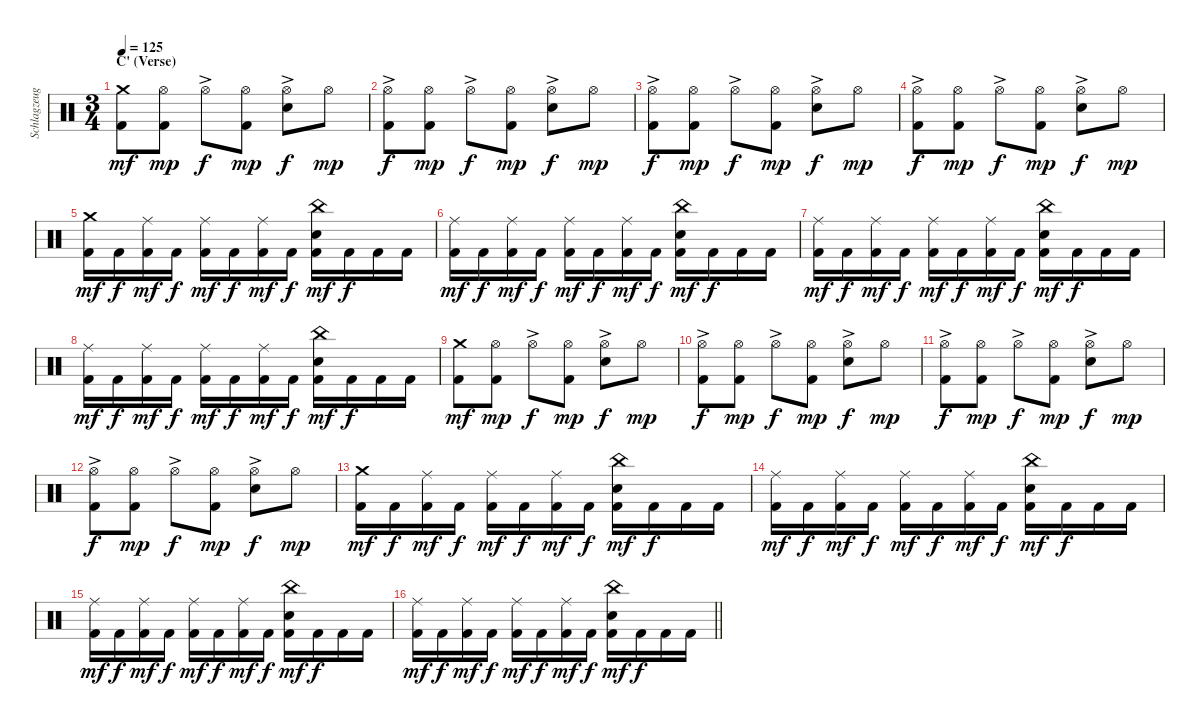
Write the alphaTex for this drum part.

\track ("Schlagzeug" "Schlagzeug") {instrument percussion}
\staff {score}
\articulation defaults
\ts (3 4)
\section ("" "C' (Verse)")
\tempo 125
\clef neutral
\ks c
("Crash medium (hit)" "Kick (hit) 2").8{dy mf} ("Hi-Hat (open)" "Kick (hit) 2").8{dy mp} "Hi-Hat (open)"{ac}.8{dy f} ("Hi-Hat (open)" "Kick (hit) 2").8{dy mp} ("Hi-Hat (open)"{ac} "Electric Snare (hit)").8{dy f} "Hi-Hat (open)".8{dy mp} |
("Hi-Hat (open)"{ac} "Kick (hit) 2").8{dy f} ("Hi-Hat (open)" "Kick (hit) 2").8{dy mp} "Hi-Hat (open)"{ac}.8{dy f} ("Hi-Hat (open)" "Kick (hit) 2").8{dy mp} ("Hi-Hat (open)"{ac} "Electric Snare (hit)").8{dy f} "Hi-Hat (open)".8{dy mp} |
("Hi-Hat (open)"{ac} "Kick (hit) 2").8{dy f} ("Hi-Hat (open)" "Kick (hit) 2").8{dy mp} "Hi-Hat (open)"{ac}.8{dy f} ("Hi-Hat (open)" "Kick (hit) 2").8{dy mp} ("Hi-Hat (open)"{ac} "Electric Snare (hit)").8{dy f} "Hi-Hat (open)".8{dy mp} |
("Hi-Hat (open)"{ac} "Kick (hit) 2").8{dy f} ("Hi-Hat (open)" "Kick (hit) 2").8{dy mp} "Hi-Hat (open)"{ac}.8{dy f} ("Hi-Hat (open)" "Kick (hit) 2").8{dy mp} ("Hi-Hat (open)"{ac} "Electric Snare (hit)").8{dy f} "Hi-Hat (open)".8{dy mp} |
("Crash medium (hit)" "Kick (hit) 2").16{dy mf} "Kick (hit) 2".16{dy f} ("Ride (middle)" "Kick (hit) 2").16{dy mf} "Kick (hit) 2".16{dy f} ("Ride (middle)" "Kick (hit) 2").16{dy mf} "Kick (hit) 2".16{dy f} ("Ride (middle)" "Kick (hit) 2").16{dy mf} "Kick (hit) 2".16{dy f} ("China (hit)" "Electric Snare (hit)" "Kick (hit) 2").16{dy mf} "Kick (hit) 2".16{dy f} "Kick (hit) 2".16 "Kick (hit) 2".16 |
("Ride (middle)" "Kick (hit) 2").16{dy mf} "Kick (hit) 2".16{dy f} ("Ride (middle)" "Kick (hit) 2").16{dy mf} "Kick (hit) 2".16{dy f} ("Ride (middle)" "Kick (hit) 2").16{dy mf} "Kick (hit) 2".16{dy f} ("Ride (middle)" "Kick (hit) 2").16{dy mf} "Kick (hit) 2".16{dy f} ("China (hit)" "Electric Snare (hit)" "Kick (hit) 2").16{dy mf} "Kick (hit) 2".16{dy f} "Kick (hit) 2".16 "Kick (hit) 2".16 |
("Ride (middle)" "Kick (hit) 2").16{dy mf} "Kick (hit) 2".16{dy f} ("Ride (middle)" "Kick (hit) 2").16{dy mf} "Kick (hit) 2".16{dy f} ("Ride (middle)" "Kick (hit) 2").16{dy mf} "Kick (hit) 2".16{dy f} ("Ride (middle)" "Kick (hit) 2").16{dy mf} "Kick (hit) 2".16{dy f} ("China (hit)" "Electric Snare (hit)" "Kick (hit) 2").16{dy mf} "Kick (hit) 2".16{dy f} "Kick (hit) 2".16 "Kick (hit) 2".16 |
("Ride (middle)" "Kick (hit) 2").16{dy mf} "Kick (hit) 2".16{dy f} ("Ride (middle)" "Kick (hit) 2").16{dy mf} "Kick (hit) 2".16{dy f} ("Ride (middle)" "Kick (hit) 2").16{dy mf} "Kick (hit) 2".16{dy f} ("Ride (middle)" "Kick (hit) 2").16{dy mf} "Kick (hit) 2".16{dy f} ("China (hit)" "Electric Snare (hit)" "Kick (hit) 2").16{dy mf} "Kick (hit) 2".16{dy f} "Kick (hit) 2".16 "Kick (hit) 2".16 |
("Crash medium (hit)" "Kick (hit) 2").8{dy mf} ("Hi-Hat (open)" "Kick (hit) 2").8{dy mp} "Hi-Hat (open)"{ac}.8{dy f} ("Hi-Hat (open)" "Kick (hit) 2").8{dy mp} ("Hi-Hat (open)"{ac} "Electric Snare (hit)").8{dy f} "Hi-Hat (open)".8{dy mp} |
("Hi-Hat (open)"{ac} "Kick (hit) 2").8{dy f} ("Hi-Hat (open)" "Kick (hit) 2").8{dy mp} "Hi-Hat (open)"{ac}.8{dy f} ("Hi-Hat (open)" "Kick (hit) 2").8{dy mp} ("Hi-Hat (open)"{ac} "Electric Snare (hit)").8{dy f} "Hi-Hat (open)".8{dy mp} |
("Hi-Hat (open)"{ac} "Kick (hit) 2").8{dy f} ("Hi-Hat (open)" "Kick (hit) 2").8{dy mp} "Hi-Hat (open)"{ac}.8{dy f} ("Hi-Hat (open)" "Kick (hit) 2").8{dy mp} ("Hi-Hat (open)"{ac} "Electric Snare (hit)").8{dy f} "Hi-Hat (open)".8{dy mp} |
("Hi-Hat (open)"{ac} "Kick (hit) 2").8{dy f} ("Hi-Hat (open)" "Kick (hit) 2").8{dy mp} "Hi-Hat (open)"{ac}.8{dy f} ("Hi-Hat (open)" "Kick (hit) 2").8{dy mp} ("Hi-Hat (open)"{ac} "Electric Snare (hit)").8{dy f} "Hi-Hat (open)".8{dy mp} |
("Crash medium (hit)" "Kick (hit) 2").16{dy mf} "Kick (hit) 2".16{dy f} ("Ride (middle)" "Kick (hit) 2").16{dy mf} "Kick (hit) 2".16{dy f} ("Ride (middle)" "Kick (hit) 2").16{dy mf} "Kick (hit) 2".16{dy f} ("Ride (middle)" "Kick (hit) 2").16{dy mf} "Kick (hit) 2".16{dy f} ("China (hit)" "Electric Snare (hit)" "Kick (hit) 2").16{dy mf} "Kick (hit) 2".16{dy f} "Kick (hit) 2".16 "Kick (hit) 2".16 |
("Ride (middle)" "Kick (hit) 2").16{dy mf} "Kick (hit) 2".16{dy f} ("Ride (middle)" "Kick (hit) 2").16{dy mf} "Kick (hit) 2".16{dy f} ("Ride (middle)" "Kick (hit) 2").16{dy mf} "Kick (hit) 2".16{dy f} ("Ride (middle)" "Kick (hit) 2").16{dy mf} "Kick (hit) 2".16{dy f} ("China (hit)" "Electric Snare (hit)" "Kick (hit) 2").16{dy mf} "Kick (hit) 2".16{dy f} "Kick (hit) 2".16 "Kick (hit) 2".16 |
("Ride (middle)" "Kick (hit) 2").16{dy mf} "Kick (hit) 2".16{dy f} ("Ride (middle)" "Kick (hit) 2").16{dy mf} "Kick (hit) 2".16{dy f} ("Ride (middle)" "Kick (hit) 2").16{dy mf} "Kick (hit) 2".16{dy f} ("Ride (middle)" "Kick (hit) 2").16{dy mf} "Kick (hit) 2".16{dy f} ("China (hit)" "Electric Snare (hit)" "Kick (hit) 2").16{dy mf} "Kick (hit) 2".16{dy f} "Kick (hit) 2".16 "Kick (hit) 2".16 |
\barLineRight lightlight
("Ride (middle)" "Kick (hit) 2").16{dy mf} "Kick (hit) 2".16{dy f} ("Ride (middle)" "Kick (hit) 2").16{dy mf} "Kick (hit) 2".16{dy f} ("Ride (middle)" "Kick (hit) 2").16{dy mf} "Kick (hit) 2".16{dy f} ("Ride (middle)" "Kick (hit) 2").16{dy mf} "Kick (hit) 2".16{dy f} ("China (hit)" "Electric Snare (hit)" "Kick (hit) 2").16{dy mf} "Kick (hit) 2".16{dy f} "Kick (hit) 2".16 "Kick (hit) 2".16
